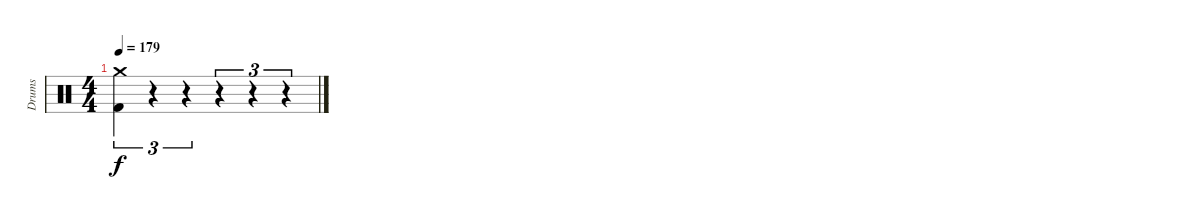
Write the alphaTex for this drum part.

\track ("Drums" "Drums") {instrument percussion}
\staff {score}
\articulation defaults
\ts (4 4)
\tempo 179
\clef neutral
\ks c
("Crash medium (hit)" "Kick (hit) 2").4{tu (3 2) dy f} r.4{tu (3 2)} r.4{tu (3 2)} r.4{tu (3 2)} r.4{tu (3 2)} r.4{tu (3 2)}
